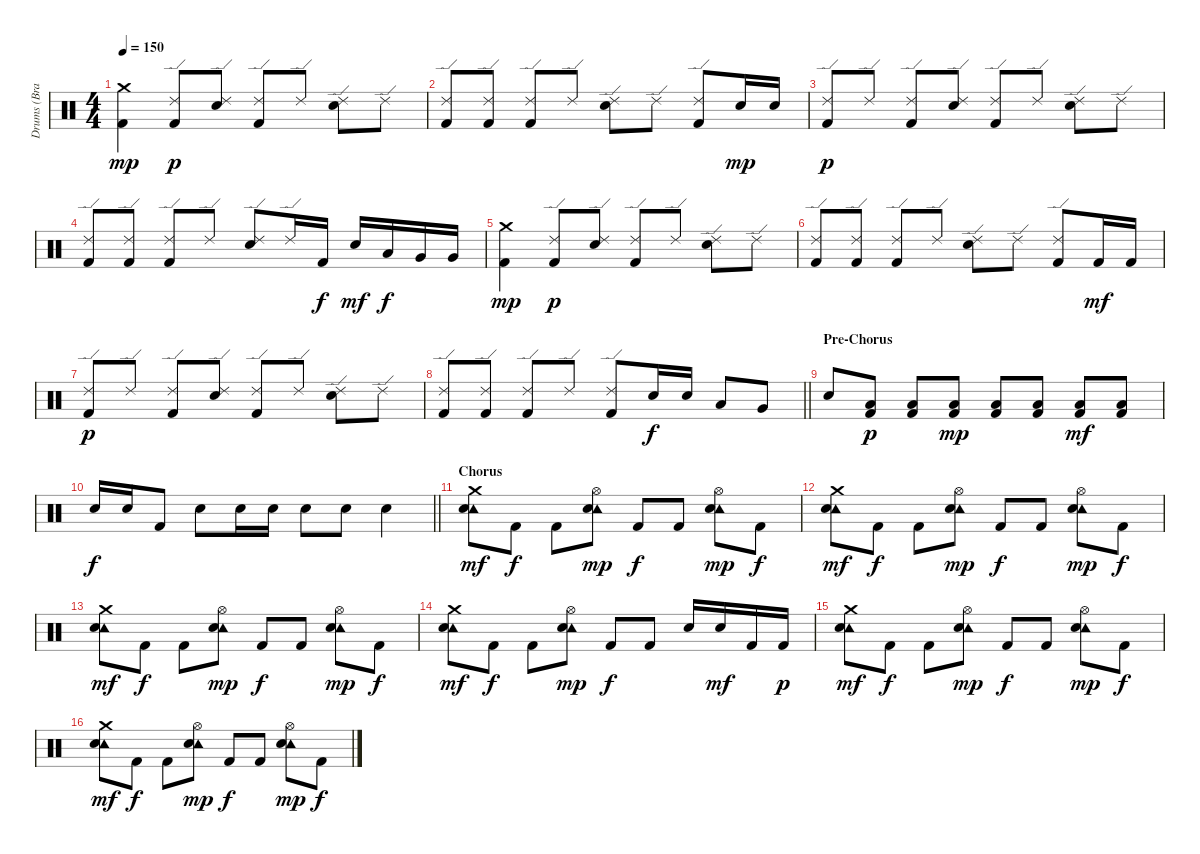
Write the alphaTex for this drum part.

\track ("Drums (Brandon Saller)" "Drums (Bra") {instrument percussion}
\staff {score}
\articulation defaults
\ts (4 4)
\tempo 150
\clef neutral
\ks c
("Crash medium (hit)" "Kick (hit) 2").4{dy mp} ("Ride (edge) 2" "Kick (hit) 2").8{dy p} ("Ride (edge) 2" "Electric Snare (hit)").8 ("Ride (edge) 2" "Kick (hit) 2").8 "Ride (edge) 2".8 ("Ride (edge) 2" "Electric Snare (hit)").8 "Ride (edge) 2".8 |
("Ride (edge) 2" "Kick (hit) 2").8 ("Ride (edge) 2" "Kick (hit) 2").8 ("Ride (edge) 2" "Kick (hit) 2").8 "Ride (edge) 2".8 ("Ride (edge) 2" "Electric Snare (hit)").8 "Ride (edge) 2".8 ("Ride (edge) 2" "Kick (hit) 2").8 "Electric Snare (hit)".16{dy mp} "Electric Snare (hit)".16 |
("Ride (edge) 2" "Kick (hit) 2").8{dy p} "Ride (edge) 2".8 ("Ride (edge) 2" "Kick (hit) 2").8 ("Ride (edge) 2" "Electric Snare (hit)").8 ("Ride (edge) 2" "Kick (hit) 2").8 "Ride (edge) 2".8 ("Ride (edge) 2" "Electric Snare (hit)").8 "Ride (edge) 2".8 |
("Ride (edge) 2" "Kick (hit) 2").8 ("Ride (edge) 2" "Kick (hit) 2").8 ("Ride (edge) 2" "Kick (hit) 2").8 "Ride (edge) 2".8 ("Ride (edge) 2" "Electric Snare (hit)").8 "Ride (edge) 2".16 "Kick (hit) 2".16{dy f} "Electric Snare (hit)".16{dy mf} "Low Tom (hit)".16{dy f} "Very Low Tom (hit)".16 "Very Low Tom (hit)".16 |
("Crash medium (hit)" "Kick (hit) 2").4{dy mp} ("Ride (edge) 2" "Kick (hit) 2").8{dy p} ("Ride (edge) 2" "Electric Snare (hit)").8 ("Ride (edge) 2" "Kick (hit) 2").8 "Ride (edge) 2".8 ("Ride (edge) 2" "Electric Snare (hit)").8 "Ride (edge) 2".8 |
("Ride (edge) 2" "Kick (hit) 2").8 ("Ride (edge) 2" "Kick (hit) 2").8 ("Ride (edge) 2" "Kick (hit) 2").8 "Ride (edge) 2".8 ("Ride (edge) 2" "Electric Snare (hit)").8 "Ride (edge) 2".8 ("Ride (edge) 2" "Kick (hit) 2").8 "Kick (hit) 2".16{dy mf} "Kick (hit) 2".16 |
("Ride (edge) 2" "Kick (hit) 2").8{dy p} "Ride (edge) 2".8 ("Ride (edge) 2" "Kick (hit) 2").8 ("Ride (edge) 2" "Electric Snare (hit)").8 ("Ride (edge) 2" "Kick (hit) 2").8 "Ride (edge) 2".8 ("Ride (edge) 2" "Electric Snare (hit)").8 "Ride (edge) 2".8 |
\barLineRight lightlight
("Ride (edge) 2" "Kick (hit) 2").8 ("Ride (edge) 2" "Kick (hit) 2").8 ("Ride (edge) 2" "Kick (hit) 2").8 "Ride (edge) 2".8 ("Ride (edge) 2" "Kick (hit) 2").8 "Electric Snare (hit)".16{dy f} "Electric Snare (hit)".16 "Low Tom (hit)".8 "Very Low Tom (hit)".8 |
\section ("" "Pre-Chorus")
"Electric Snare (hit)".8 ("Low Floor Tom (hit)" "Kick (hit) 2").8{dy p} ("Low Floor Tom (hit)" "Kick (hit) 2").8 ("Low Floor Tom (hit)" "Kick (hit) 2").8{dy mp} ("Low Floor Tom (hit)" "Kick (hit) 2").8 ("Low Floor Tom (hit)" "Kick (hit) 2").8 ("Low Floor Tom (hit)" "Kick (hit) 2").8{dy mf} ("Low Floor Tom (hit)" "Kick (hit) 2").8 |
\barLineRight lightlight "Electric Snare (hit)".16{dy f} "Electric Snare (hit)".16 "Kick (hit) 2".8 "Electric Snare (hit)".8 "Electric Snare (hit)".16 "Electric Snare (hit)".16 "Electric Snare (hit)".8 "Electric Snare (hit)".8 "Electric Snare (hit)".4
|
\section ("" "Chorus")
("Tambourine (hit)" "Crash medium (hit)" "Electric Snare (hit)").8{dy mf} "Kick (hit) 2".8{dy f} "Kick (hit) 2".8 ("Hi-Hat (open)" "Tambourine (hit)" "Electric Snare (hit)").8{dy mp} "Kick (hit) 2".8{dy f} "Kick (hit) 2".8 ("Hi-Hat (open)" "Tambourine (hit)" "Electric Snare (hit)").8{dy mp} "Kick (hit) 2".8{dy f} |
("Tambourine (hit)" "Crash medium (hit)" "Electric Snare (hit)").8{dy mf} "Kick (hit) 2".8{dy f} "Kick (hit) 2".8 ("Hi-Hat (open)" "Tambourine (hit)" "Electric Snare (hit)").8{dy mp} "Kick (hit) 2".8{dy f} "Kick (hit) 2".8 ("Hi-Hat (open)" "Tambourine (hit)" "Electric Snare (hit)").8{dy mp} "Kick (hit) 2".8{dy f} |
("Tambourine (hit)" "Crash medium (hit)" "Electric Snare (hit)").8{dy mf} "Kick (hit) 2".8{dy f} "Kick (hit) 2".8 ("Hi-Hat (open)" "Tambourine (hit)" "Electric Snare (hit)").8{dy mp} "Kick (hit) 2".8{dy f} "Kick (hit) 2".8 ("Hi-Hat (open)" "Tambourine (hit)" "Electric Snare (hit)").8{dy mp} "Kick (hit) 2".8{dy f} |
("Tambourine (hit)" "Crash medium (hit)" "Electric Snare (hit)").8{dy mf} "Kick (hit) 2".8{dy f} "Kick (hit) 2".8 ("Hi-Hat (open)" "Tambourine (hit)" "Electric Snare (hit)").8{dy mp} "Kick (hit) 2".8{dy f} "Kick (hit) 2".8 "Electric Snare (hit)".16 "Electric Snare (hit)".16{dy mf} "Kick (hit) 2".16 "Kick (hit) 2".16{dy p} |
("Tambourine (hit)" "Crash medium (hit)" "Electric Snare (hit)").8{dy mf} "Kick (hit) 2".8{dy f} "Kick (hit) 2".8 ("Hi-Hat (open)" "Tambourine (hit)" "Electric Snare (hit)").8{dy mp} "Kick (hit) 2".8{dy f} "Kick (hit) 2".8 ("Hi-Hat (open)" "Tambourine (hit)" "Electric Snare (hit)").8{dy mp} "Kick (hit) 2".8{dy f} |
("Tambourine (hit)" "Crash medium (hit)" "Electric Snare (hit)").8{dy mf} "Kick (hit) 2".8{dy f} "Kick (hit) 2".8 ("Hi-Hat (open)" "Tambourine (hit)" "Electric Snare (hit)").8{dy mp} "Kick (hit) 2".8{dy f} "Kick (hit) 2".8 ("Hi-Hat (open)" "Tambourine (hit)" "Electric Snare (hit)").8{dy mp} "Kick (hit) 2".8{dy f}
